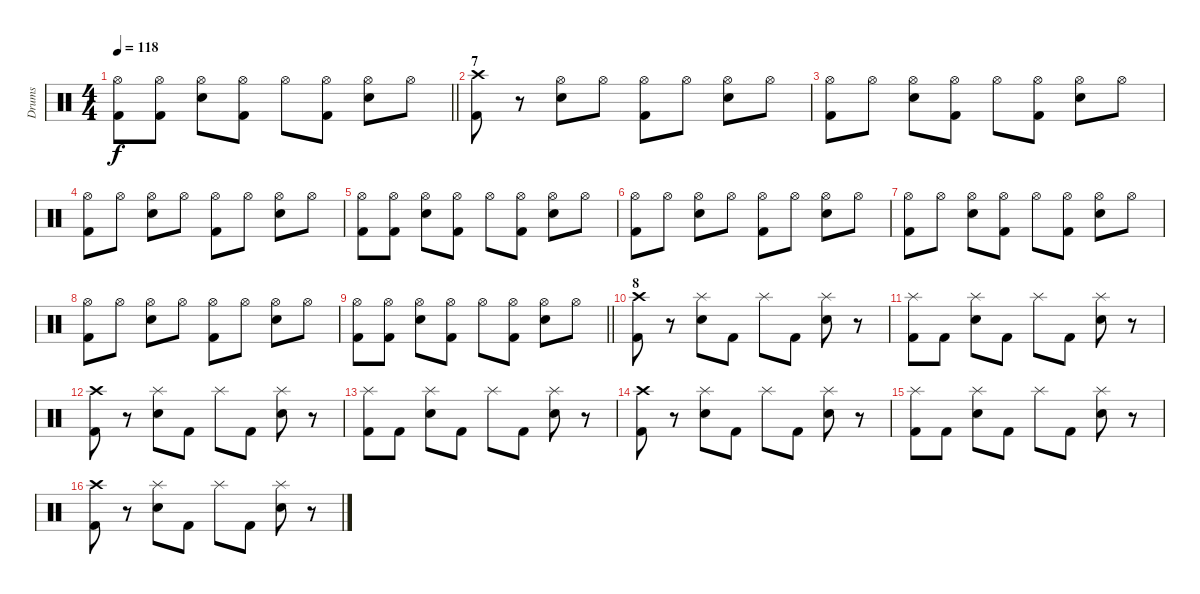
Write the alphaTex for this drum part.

\track ("Drums" "Drums") {instrument percussion}
\staff {score}
\articulation defaults
\ts (4 4)
\tempo 118
\clef neutral
\barLineRight lightlight
\ks c
("Kick (hit) 2" "Hi-Hat (open)").8{dy f} ("Kick (hit) 2" "Hi-Hat (open)").8 ("Hi-Hat (open)" "Electric Snare (hit)").8 ("Kick (hit) 2" "Hi-Hat (open)").8 "Hi-Hat (open)".8 ("Kick (hit) 2" "Hi-Hat (open)").8 ("Hi-Hat (open)" "Electric Snare (hit)").8 "Hi-Hat (open)".8 |
\section ("" "7")
("Crash high (hit)" "Kick (hit) 2").8 r.8 ("Hi-Hat (open)" "Electric Snare (hit)").8 "Hi-Hat (open)".8 ("Kick (hit) 2" "Hi-Hat (open)").8 "Hi-Hat (open)".8 ("Hi-Hat (open)" "Electric Snare (hit)").8 "Hi-Hat (open)".8 |
("Kick (hit) 2" "Hi-Hat (open)").8 "Hi-Hat (open)".8 ("Hi-Hat (open)" "Electric Snare (hit)").8 ("Kick (hit) 2" "Hi-Hat (open)").8 "Hi-Hat (open)".8 ("Kick (hit) 2" "Hi-Hat (open)").8 ("Hi-Hat (open)" "Electric Snare (hit)").8 "Hi-Hat (open)".8 |
("Kick (hit) 2" "Hi-Hat (open)").8 "Hi-Hat (open)".8 ("Hi-Hat (open)" "Electric Snare (hit)").8 "Hi-Hat (open)".8 ("Kick (hit) 2" "Hi-Hat (open)").8 "Hi-Hat (open)".8 ("Hi-Hat (open)" "Electric Snare (hit)").8 "Hi-Hat (open)".8 |
("Kick (hit) 2" "Hi-Hat (open)").8 ("Kick (hit) 2" "Hi-Hat (open)").8 ("Hi-Hat (open)" "Electric Snare (hit)").8 ("Kick (hit) 2" "Hi-Hat (open)").8 "Hi-Hat (open)".8 ("Kick (hit) 2" "Hi-Hat (open)").8 ("Hi-Hat (open)" "Electric Snare (hit)").8 "Hi-Hat (open)".8 |
("Kick (hit) 2" "Hi-Hat (open)").8 "Hi-Hat (open)".8 ("Hi-Hat (open)" "Electric Snare (hit)").8 "Hi-Hat (open)".8 ("Kick (hit) 2" "Hi-Hat (open)").8 "Hi-Hat (open)".8 ("Hi-Hat (open)" "Electric Snare (hit)").8 "Hi-Hat (open)".8 |
("Kick (hit) 2" "Hi-Hat (open)").8 "Hi-Hat (open)".8 ("Hi-Hat (open)" "Electric Snare (hit)").8 ("Kick (hit) 2" "Hi-Hat (open)").8 "Hi-Hat (open)".8 ("Kick (hit) 2" "Hi-Hat (open)").8 ("Hi-Hat (open)" "Electric Snare (hit)").8 "Hi-Hat (open)".8 |
("Kick (hit) 2" "Hi-Hat (open)").8 "Hi-Hat (open)".8 ("Hi-Hat (open)" "Electric Snare (hit)").8 "Hi-Hat (open)".8 ("Kick (hit) 2" "Hi-Hat (open)").8 "Hi-Hat (open)".8 ("Hi-Hat (open)" "Electric Snare (hit)").8 "Hi-Hat (open)".8 |
\barLineRight lightlight
("Kick (hit) 2" "Hi-Hat (open)").8 ("Kick (hit) 2" "Hi-Hat (open)").8 ("Hi-Hat (open)" "Electric Snare (hit)").8 ("Kick (hit) 2" "Hi-Hat (open)").8 "Hi-Hat (open)".8 ("Kick (hit) 2" "Hi-Hat (open)").8 ("Hi-Hat (open)" "Electric Snare (hit)").8 "Hi-Hat (open)".8 |
\section ("" "8")
("Crash high (hit)" "Kick (hit) 2").8 r.8 ("Splash (hit)" "Electric Snare (hit)").8 "Kick (hit) 2".8 "Splash (hit)".8 "Kick (hit) 2".8 ("Splash (hit)" "Electric Snare (hit)").8 r.8 |
("Splash (hit)" "Kick (hit) 2").8 "Kick (hit) 2".8 ("Splash (hit)" "Electric Snare (hit)").8 "Kick (hit) 2".8 "Splash (hit)".8 "Kick (hit) 2".8 ("Splash (hit)" "Electric Snare (hit)").8 r.8 |
("Crash high (hit)" "Kick (hit) 2").8 r.8 ("Splash (hit)" "Electric Snare (hit)").8 "Kick (hit) 2".8 "Splash (hit)".8 "Kick (hit) 2".8 ("Splash (hit)" "Electric Snare (hit)").8 r.8 |
("Splash (hit)" "Kick (hit) 2").8 "Kick (hit) 2".8 ("Splash (hit)" "Electric Snare (hit)").8 "Kick (hit) 2".8 "Splash (hit)".8 "Kick (hit) 2".8 ("Splash (hit)" "Electric Snare (hit)").8 r.8 |
("Crash high (hit)" "Kick (hit) 2").8 r.8 ("Splash (hit)" "Electric Snare (hit)").8 "Kick (hit) 2".8 "Splash (hit)".8 "Kick (hit) 2".8 ("Splash (hit)" "Electric Snare (hit)").8 r.8 |
("Splash (hit)" "Kick (hit) 2").8 "Kick (hit) 2".8 ("Splash (hit)" "Electric Snare (hit)").8 "Kick (hit) 2".8 "Splash (hit)".8 "Kick (hit) 2".8 ("Splash (hit)" "Electric Snare (hit)").8 r.8 |
("Crash high (hit)" "Kick (hit) 2").8 r.8 ("Splash (hit)" "Electric Snare (hit)").8 "Kick (hit) 2".8 "Splash (hit)".8 "Kick (hit) 2".8 ("Splash (hit)" "Electric Snare (hit)").8 r.8
